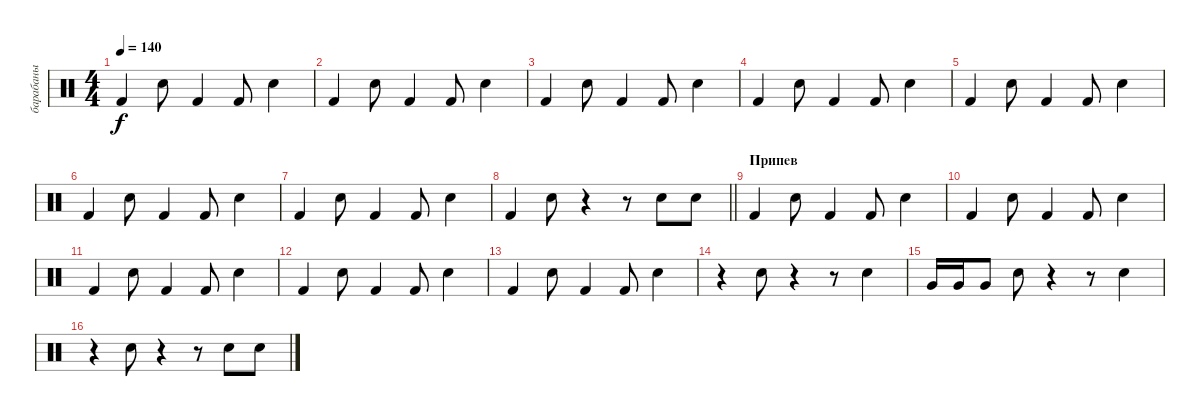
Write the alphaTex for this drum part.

\track ("барабаны" "барабаны") {instrument percussion}
\staff {score}
\articulation defaults
\ts (4 4)
\tempo 140
\clef neutral
\ks c "Kick (hit) 2".4{dy f} "Electric Snare (hit)".8 "Kick (hit) 2".4 "Kick (hit) 2".8 "Electric Snare (hit)".4
|
"Kick (hit) 2".4 "Electric Snare (hit)".8 "Kick (hit) 2".4 "Kick (hit) 2".8 "Electric Snare (hit)".4 |
"Kick (hit) 2".4 "Electric Snare (hit)".8 "Kick (hit) 2".4 "Kick (hit) 2".8 "Electric Snare (hit)".4 |
"Kick (hit) 2".4 "Electric Snare (hit)".8 "Kick (hit) 2".4 "Kick (hit) 2".8 "Electric Snare (hit)".4 |
"Kick (hit) 2".4 "Electric Snare (hit)".8 "Kick (hit) 2".4 "Kick (hit) 2".8 "Electric Snare (hit)".4 |
"Kick (hit) 2".4 "Electric Snare (hit)".8 "Kick (hit) 2".4 "Kick (hit) 2".8 "Electric Snare (hit)".4 |
"Kick (hit) 2".4 "Electric Snare (hit)".8 "Kick (hit) 2".4 "Kick (hit) 2".8 "Electric Snare (hit)".4 |
\barLineRight lightlight "Kick (hit) 2".4 "Electric Snare (hit)".8
r.4 r.8 "Electric Snare (hit)".8 "Electric Snare (hit)".8 |
\section ("" "Припев")
"Kick (hit) 2".4 "Electric Snare (hit)".8 "Kick (hit) 2".4 "Kick (hit) 2".8 "Electric Snare (hit)".4 |
"Kick (hit) 2".4 "Electric Snare (hit)".8 "Kick (hit) 2".4 "Kick (hit) 2".8 "Electric Snare (hit)".4 |
"Kick (hit) 2".4 "Electric Snare (hit)".8 "Kick (hit) 2".4 "Kick (hit) 2".8 "Electric Snare (hit)".4 |
"Kick (hit) 2".4 "Electric Snare (hit)".8 "Kick (hit) 2".4 "Kick (hit) 2".8 "Electric Snare (hit)".4 |
"Kick (hit) 2".4 "Electric Snare (hit)".8 "Kick (hit) 2".4 "Kick (hit) 2".8 "Electric Snare (hit)".4 |
r.4 "Electric Snare (hit)".8 r.4 r.8 "Electric Snare (hit)".4 |
"Very Low Tom (hit)".16 "Very Low Tom (hit)".16 "Very Low Tom (hit)".8 "Electric Snare (hit)".8 r.4 r.8 "Electric Snare (hit)".4 |
r.4 "Electric Snare (hit)".8 r.4 r.8 "Electric Snare (hit)".8 "Electric Snare (hit)".8
